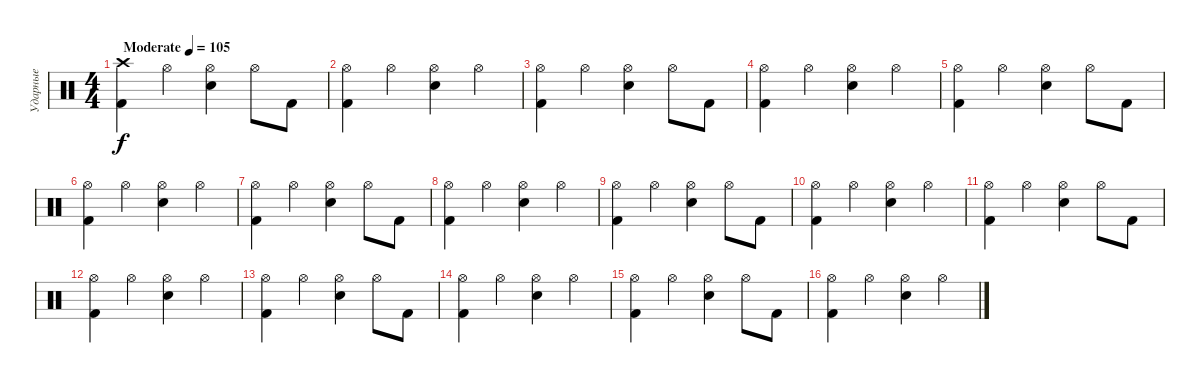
\track ("Ударные" "Ударные") {instrument percussion}
\staff {score}
\articulation defaults
\ts (4 4)
\tempo (105 "Moderate")
\clef neutral
\ks c
("Crash high (hit)" "Kick (hit) 2").4{dy f} "Hi-Hat (open)".4 ("Electric Snare (hit)" "Hi-Hat (open)").4 "Hi-Hat (open)".8 "Kick (hit) 2".8 |
("Kick (hit) 2" "Hi-Hat (open)").4 "Hi-Hat (open)".4 ("Hi-Hat (open)" "Electric Snare (hit)").4 "Hi-Hat (open)".4 |
("Hi-Hat (open)" "Kick (hit) 2").4 "Hi-Hat (open)".4 ("Electric Snare (hit)" "Hi-Hat (open)").4 "Hi-Hat (open)".8 "Kick (hit) 2".8 |
("Kick (hit) 2" "Hi-Hat (open)").4 "Hi-Hat (open)".4 ("Hi-Hat (open)" "Electric Snare (hit)").4 "Hi-Hat (open)".4 |
("Hi-Hat (open)" "Kick (hit) 2").4{volume 16} "Hi-Hat (open)".4 ("Electric Snare (hit)" "Hi-Hat (open)").4 "Hi-Hat (open)".8 "Kick (hit) 2".8 |
("Kick (hit) 2" "Hi-Hat (open)").4 "Hi-Hat (open)".4 ("Hi-Hat (open)" "Electric Snare (hit)").4 "Hi-Hat (open)".4 |
("Hi-Hat (open)" "Kick (hit) 2").4 "Hi-Hat (open)".4 ("Electric Snare (hit)" "Hi-Hat (open)").4 "Hi-Hat (open)".8 "Kick (hit) 2".8 |
("Kick (hit) 2" "Hi-Hat (open)").4 "Hi-Hat (open)".4 ("Hi-Hat (open)" "Electric Snare (hit)").4 "Hi-Hat (open)".4 |
("Hi-Hat (open)" "Kick (hit) 2").4 "Hi-Hat (open)".4 ("Electric Snare (hit)" "Hi-Hat (open)").4 "Hi-Hat (open)".8 "Kick (hit) 2".8 |
("Kick (hit) 2" "Hi-Hat (open)").4 "Hi-Hat (open)".4 ("Hi-Hat (open)" "Electric Snare (hit)").4 "Hi-Hat (open)".4 |
("Hi-Hat (open)" "Kick (hit) 2").4 "Hi-Hat (open)".4 ("Electric Snare (hit)" "Hi-Hat (open)").4 "Hi-Hat (open)".8 "Kick (hit) 2".8 |
("Kick (hit) 2" "Hi-Hat (open)").4 "Hi-Hat (open)".4 ("Hi-Hat (open)" "Electric Snare (hit)").4 "Hi-Hat (open)".4 |
("Hi-Hat (open)" "Kick (hit) 2").4 "Hi-Hat (open)".4 ("Electric Snare (hit)" "Hi-Hat (open)").4 "Hi-Hat (open)".8 "Kick (hit) 2".8 |
("Kick (hit) 2" "Hi-Hat (open)").4 "Hi-Hat (open)".4 ("Hi-Hat (open)" "Electric Snare (hit)").4 "Hi-Hat (open)".4 |
("Hi-Hat (open)" "Kick (hit) 2").4 "Hi-Hat (open)".4 ("Electric Snare (hit)" "Hi-Hat (open)").4 "Hi-Hat (open)".8 "Kick (hit) 2".8 |
("Kick (hit) 2" "Hi-Hat (open)").4 "Hi-Hat (open)".4 ("Hi-Hat (open)" "Electric Snare (hit)").4 "Hi-Hat (open)".4
